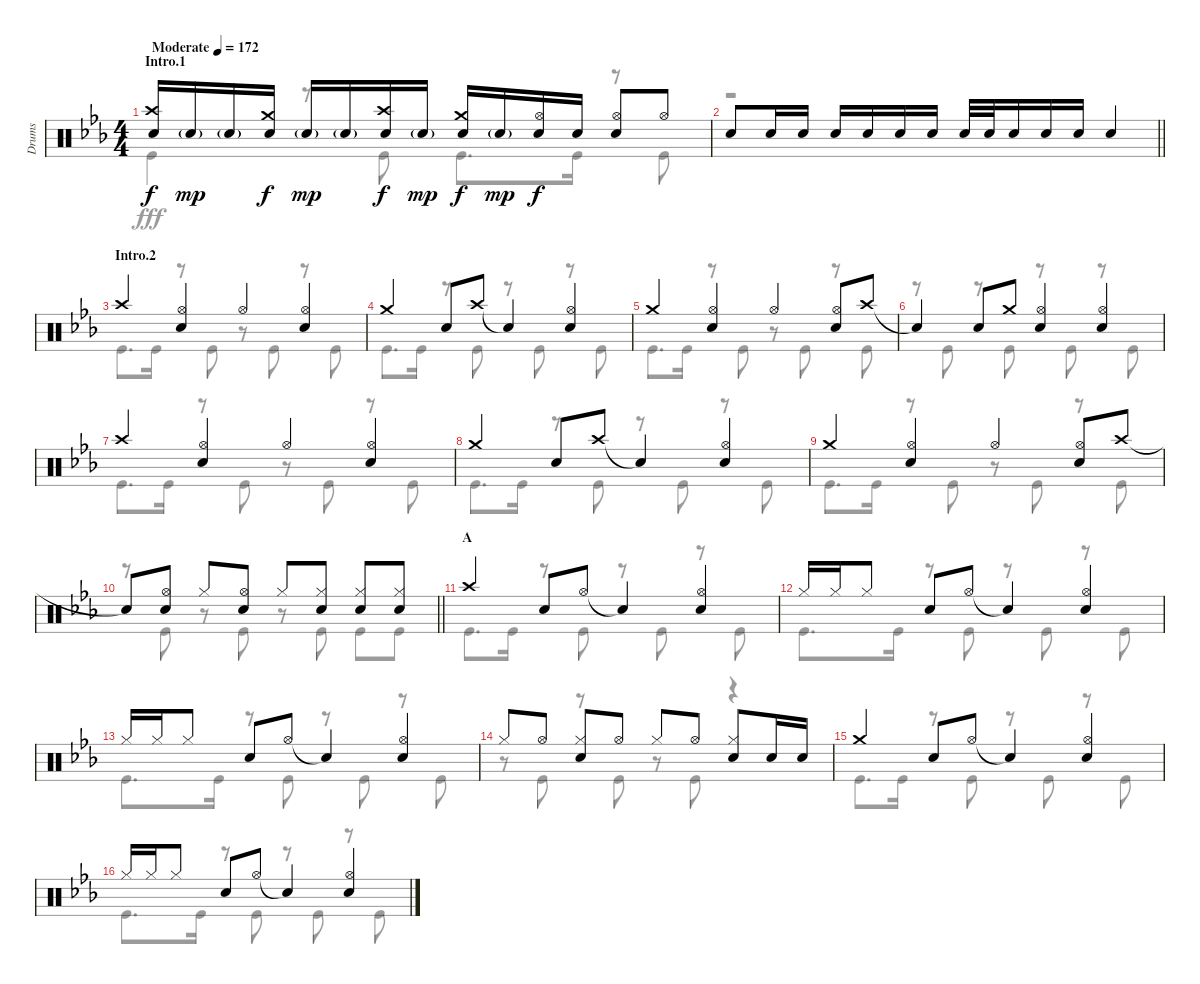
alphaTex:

\track ("Drums" "Drums") {instrument percussion}
\staff {score}
\articulation defaults
\voice
\ts (4 4)
\section ("" "Intro.1")
\tempo (172 "Moderate")
\clef neutral
\ks eb
("Snare (hit) 2" "Crash high (hit)").16{dy f} "Snare (hit) 2"{g}.16{dy mp} "Snare (hit) 2"{g}.16 ("Snare (hit) 2" "Crash medium (hit)").16{dy f} "Snare (hit) 2"{g}.16{dy mp} "Snare (hit) 2"{g}.16 ("Snare (hit) 2" "Crash high (hit)").16{dy f} "Snare (hit) 2"{g}.16{dy mp} ("Snare (hit) 2" "Crash medium (hit)").16{dy f} "Snare (hit) 2"{g}.16{dy mp} ("Snare (hit) 2" "Hi-Hat (open)").16{dy f} "Snare (hit) 2".16 ("Snare (hit) 2" "Hi-Hat (open)").8 "Hi-Hat (open)".8 |
\barLineRight lightlight "Snare (hit) 2".8 "Snare (hit) 2".16 "Snare (hit) 2".16 "Snare (hit) 2".16 "Snare (hit) 2".16 "Snare (hit) 2".16 "Snare (hit) 2".16 "Snare (hit) 2".32 "Snare (hit) 2".32 "Snare (hit) 2".16 "Snare (hit) 2".16 "Snare (hit) 2".16 "Snare (hit) 2".4
|
\section ("" "Intro.2")
"Crash high (hit)".4 ("Hi-Hat (open)" "Snare (hit) 2").4 "Hi-Hat (open)".4 ("Hi-Hat (open)" "Snare (hit) 2").4 |
"Crash medium (hit)".4 "Snare (hit) 2".8 "Crash high (hit)".8 "Snare (hit)"{t}.4 ("Hi-Hat (open)" "Snare (hit) 2").4 |
"Crash medium (hit)".4 ("Hi-Hat (open)" "Snare (hit) 2").4 "Hi-Hat (open)".4 ("Hi-Hat (open)" "Snare (hit) 2").8 "Crash high (hit)".8 |
"Snare (hit)"{t}.4 "Snare (hit) 2".8 "Crash medium (hit)".8 ("Hi-Hat (open)" "Snare (hit) 2").4 ("Hi-Hat (open)" "Snare (hit) 2").4 |
"Crash high (hit)".4 ("Hi-Hat (open)" "Snare (hit) 2").4 "Hi-Hat (open)".4 ("Hi-Hat (open)" "Snare (hit) 2").4 |
"Crash medium (hit)".4 "Snare (hit) 2".8 "Crash high (hit)".8 "Snare (hit)"{t}.4 ("Hi-Hat (open)" "Snare (hit) 2").4 |
"Crash medium (hit)".4 ("Hi-Hat (open)" "Snare (hit) 2").4 "Hi-Hat (open)".4 ("Hi-Hat (open)" "Snare (hit) 2").8 "Crash high (hit)".8 |
\barLineRight lightlight "Snare (hit)"{t}.8
("Hi-Hat (open)" "Snare (hit) 2").8 "Hi-Hat (closed)".8 ("Hi-Hat (open)" "Snare (hit) 2").8 "Hi-Hat (closed)".8 ("Hi-Hat (closed)" "Snare (hit) 2").8 ("Hi-Hat (closed)" "Snare (hit) 2").8 ("Hi-Hat (closed)" "Snare (hit) 2").8 |
\section ("" "A")
"Crash high (hit)".4 "Snare (hit) 2".8 "Hi-Hat (open)".8 "Snare (hit)"{t}.4 ("Hi-Hat (open)" "Snare (hit) 2").4 |
"Hi-Hat (closed)".16 "Hi-Hat (closed)".16 "Hi-Hat (closed)".8 "Snare (hit) 2".8 "Hi-Hat (open)".8 "Snare (hit)"{t}.4 ("Hi-Hat (open)" "Snare (hit) 2").4 |
"Hi-Hat (closed)".16 "Hi-Hat (closed)".16 "Hi-Hat (closed)".8 "Snare (hit) 2".8 "Hi-Hat (open)".8 "Snare (hit)"{t}.4 ("Hi-Hat (open)" "Snare (hit) 2").4 |
"Hi-Hat (closed)".8 "Hi-Hat (open)".8 ("Hi-Hat (closed)" "Snare (hit) 2").8 "Hi-Hat (open)".8 "Hi-Hat (closed)".8 "Hi-Hat (open)".8 ("Hi-Hat (closed)" "Snare (hit) 2").8 "Snare (hit) 2".16 "Snare (hit) 2".16 |
"Crash medium (hit)".4 "Snare (hit) 2".8 "Hi-Hat (open)".8 "Snare (hit)"{t}.4 ("Hi-Hat (open)" "Snare (hit) 2").4 |
"Hi-Hat (closed)".16 "Hi-Hat (closed)".16 "Hi-Hat (closed)".8 "Snare (hit) 2".8 "Hi-Hat (open)".8 "Snare (hit)"{t}.4 ("Hi-Hat (open)" "Snare (hit) 2").4
\voice
\clef neutral
\ottava regular
\simile none
\ks eb "Kick (hit)".4{dy fff}
r.8 "Kick (hit)".8 "Kick (hit)".8{d} "Kick (hit)".16 r.8 "Kick (hit)".8 |
\barLineRight lightlight
r.1 |
"Kick (hit)".8{d} "Kick (hit)".16 r.8 "Kick (hit)".8 r.8 "Kick (hit)".8 r.8 "Kick (hit)".8 |
"Kick (hit)".8{d} "Kick (hit)".16 r.8 "Kick (hit)".8 r.8 "Kick (hit)".8 r.8 "Kick (hit)".8 |
"Kick (hit)".8{d} "Kick (hit)".16 r.8 "Kick (hit)".8 r.8 "Kick (hit)".8 r.8 "Kick (hit)".8 |
r.8 "Kick (hit)".8 r.8 "Kick (hit)".8 r.8 "Kick (hit)".8 r.8 "Kick (hit)".8 |
"Kick (hit)".8{d} "Kick (hit)".16 r.8 "Kick (hit)".8 r.8 "Kick (hit)".8 r.8 "Kick (hit)".8 |
"Kick (hit)".8{d} "Kick (hit)".16 r.8 "Kick (hit)".8 r.8 "Kick (hit)".8 r.8 "Kick (hit)".8 |
"Kick (hit)".8{d} "Kick (hit)".16 r.8 "Kick (hit)".8 r.8 "Kick (hit)".8 r.8 "Kick (hit)".8 |
\barLineRight lightlight
r.8 "Kick (hit)".8 r.8 "Kick (hit)".8 r.8 "Kick (hit)".8 "Kick (hit)".8 "Kick (hit)".8 |
"Kick (hit)".8{d} "Kick (hit)".16 r.8 "Kick (hit)".8 r.8 "Kick (hit)".8 r.8 "Kick (hit)".8 |
"Kick (hit)".8{d} "Kick (hit)".16 r.8 "Kick (hit)".8 r.8 "Kick (hit)".8 r.8 "Kick (hit)".8 |
"Kick (hit)".8{d} "Kick (hit)".16 r.8 "Kick (hit)".8 r.8 "Kick (hit)".8 r.8 "Kick (hit)".8 |
r.8 "Kick (hit)".8 r.8 "Kick (hit)".8 r.8 "Kick (hit)".8 r.4 |
"Kick (hit)".8{d} "Kick (hit)".16 r.8 "Kick (hit)".8 r.8 "Kick (hit)".8 r.8 "Kick (hit)".8 |
"Kick (hit)".8{d} "Kick (hit)".16 r.8 "Kick (hit)".8 r.8 "Kick (hit)".8 r.8 "Kick (hit)".8
